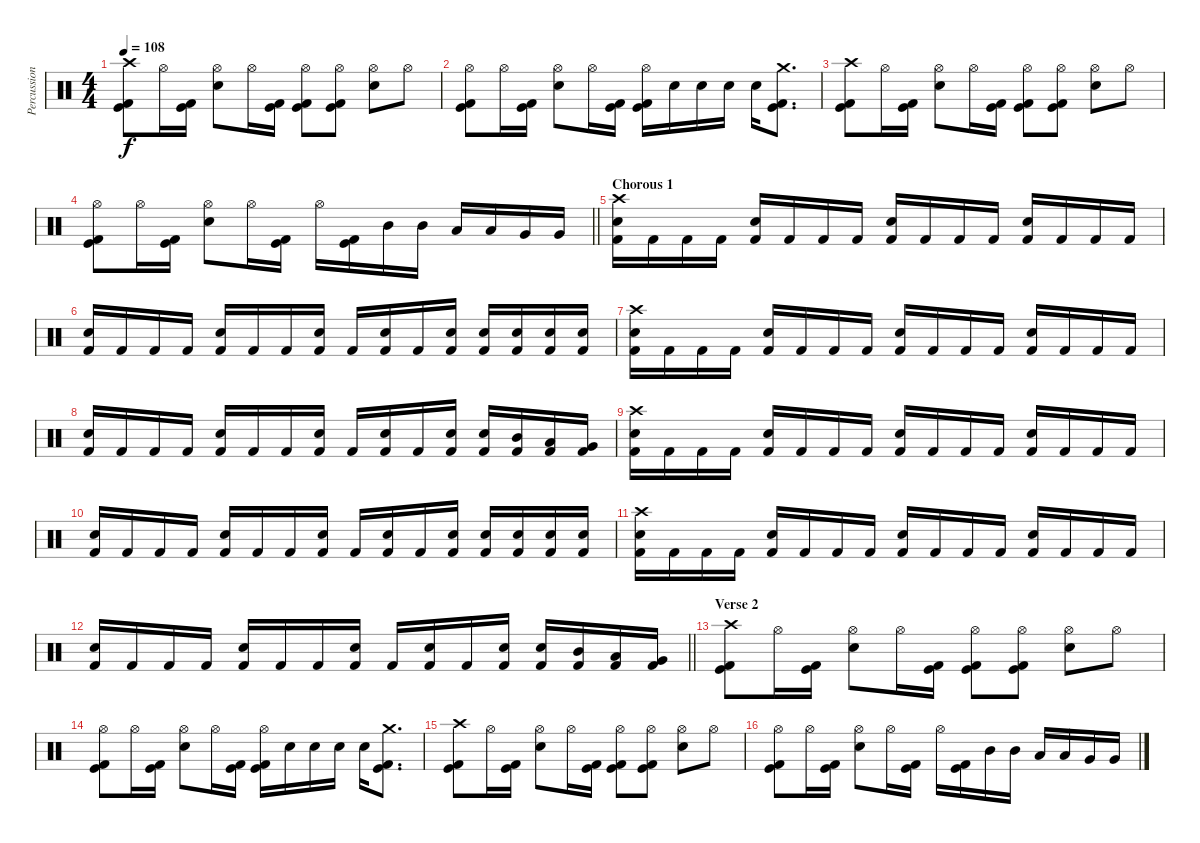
\track ("Percussion" "Percussion") {instrument percussion}
\staff {score}
\articulation defaults
\ts (4 4)
\tempo 108
\clef neutral
\ks c
("Crash high (hit)" "Kick (hit)" "Kick (hit) 2").8{dy f} "Hi-Hat (open)".16 ("Kick (hit)" "Kick (hit) 2").16 ("Hi-Hat (open)" "Electric Snare (hit)").8 "Hi-Hat (open)".16 ("Kick (hit)" "Kick (hit) 2").16 ("Hi-Hat (open)" "Kick (hit)" "Kick (hit) 2").8 ("Hi-Hat (open)" "Kick (hit)" "Kick (hit) 2").8 ("Hi-Hat (open)" "Electric Snare (hit)").8 "Hi-Hat (open)".8 |
("Hi-Hat (open)" "Kick (hit)" "Kick (hit) 2").8 "Hi-Hat (open)".16 ("Kick (hit)" "Kick (hit) 2").16 ("Hi-Hat (open)" "Electric Snare (hit)").8 "Hi-Hat (open)".16 ("Kick (hit)" "Kick (hit) 2").16 ("Hi-Hat (open)" "Kick (hit)" "Kick (hit) 2").16 "Electric Snare (hit)".16 "Electric Snare (hit)".16 "Electric Snare (hit)".16 "Electric Snare (hit)".16 ("Crash medium (hit)" "Kick (hit)" "Kick (hit) 2").8{d} |
("Crash high (hit)" "Kick (hit)" "Kick (hit) 2").8 "Hi-Hat (open)".16 ("Kick (hit)" "Kick (hit) 2").16 ("Hi-Hat (open)" "Electric Snare (hit)").8 "Hi-Hat (open)".16 ("Kick (hit)" "Kick (hit) 2").16 ("Hi-Hat (open)" "Kick (hit)" "Kick (hit) 2").8 ("Hi-Hat (open)" "Kick (hit)" "Kick (hit) 2").8 ("Hi-Hat (open)" "Electric Snare (hit)").8 "Hi-Hat (open)".8 |
\barLineRight lightlight
("Hi-Hat (open)" "Kick (hit)" "Kick (hit) 2").8 "Hi-Hat (open)".16 ("Kick (hit)" "Kick (hit) 2").16 ("Hi-Hat (open)" "Electric Snare (hit)").8 "Hi-Hat (open)".16 ("Kick (hit)" "Kick (hit) 2").16 "Hi-Hat (open)".16 ("Kick (hit)" "Kick (hit) 2").16 "Mid Tom (hit)".16 "Mid Tom (hit)".16 "Low Tom (hit)".16 "Low Tom (hit)".16 "Very Low Tom (hit)".16 "Very Low Tom (hit)".16 |
\section ("" "Chorous 1")
("Crash high (hit)" "Electric Snare (hit)" "Kick (hit) 2").16 "Kick (hit) 2".16 "Kick (hit) 2".16 "Kick (hit) 2".16 ("Electric Snare (hit)" "Kick (hit) 2").16 "Kick (hit) 2".16 "Kick (hit) 2".16 "Kick (hit) 2".16 ("Electric Snare (hit)" "Kick (hit) 2").16 "Kick (hit) 2".16 "Kick (hit) 2".16 "Kick (hit) 2".16 ("Electric Snare (hit)" "Kick (hit) 2").16 "Kick (hit) 2".16 "Kick (hit) 2".16 "Kick (hit) 2".16 |
("Electric Snare (hit)" "Kick (hit) 2").16 "Kick (hit) 2".16 "Kick (hit) 2".16 "Kick (hit) 2".16 ("Electric Snare (hit)" "Kick (hit) 2").16 "Kick (hit) 2".16 "Kick (hit) 2".16 ("Electric Snare (hit)" "Kick (hit) 2").16 "Kick (hit) 2".16 ("Electric Snare (hit)" "Kick (hit) 2").16 "Kick (hit) 2".16 ("Electric Snare (hit)" "Kick (hit) 2").16 ("Electric Snare (hit)" "Kick (hit) 2").16 ("Electric Snare (hit)" "Kick (hit) 2").16 ("Electric Snare (hit)" "Kick (hit) 2").16 ("Electric Snare (hit)" "Kick (hit) 2").16 |
("Crash high (hit)" "Electric Snare (hit)" "Kick (hit) 2").16 "Kick (hit) 2".16 "Kick (hit) 2".16 "Kick (hit) 2".16 ("Electric Snare (hit)" "Kick (hit) 2").16 "Kick (hit) 2".16 "Kick (hit) 2".16 "Kick (hit) 2".16 ("Electric Snare (hit)" "Kick (hit) 2").16 "Kick (hit) 2".16 "Kick (hit) 2".16 "Kick (hit) 2".16 ("Electric Snare (hit)" "Kick (hit) 2").16 "Kick (hit) 2".16 "Kick (hit) 2".16 "Kick (hit) 2".16 |
("Electric Snare (hit)" "Kick (hit) 2").16 "Kick (hit) 2".16 "Kick (hit) 2".16 "Kick (hit) 2".16 ("Electric Snare (hit)" "Kick (hit) 2").16 "Kick (hit) 2".16 "Kick (hit) 2".16 ("Electric Snare (hit)" "Kick (hit) 2").16 "Kick (hit) 2".16 ("Electric Snare (hit)" "Kick (hit) 2").16 "Kick (hit) 2".16 ("Electric Snare (hit)" "Kick (hit) 2").16 ("Electric Snare (hit)" "Kick (hit) 2").16 ("Kick (hit) 2" "Mid Tom (hit)").16 ("Kick (hit) 2" "Low Tom (hit)").16 ("Kick (hit) 2" "Very Low Tom (hit)").16 |
("Crash high (hit)" "Electric Snare (hit)" "Kick (hit) 2").16 "Kick (hit) 2".16 "Kick (hit) 2".16 "Kick (hit) 2".16 ("Electric Snare (hit)" "Kick (hit) 2").16 "Kick (hit) 2".16 "Kick (hit) 2".16 "Kick (hit) 2".16 ("Electric Snare (hit)" "Kick (hit) 2").16 "Kick (hit) 2".16 "Kick (hit) 2".16 "Kick (hit) 2".16 ("Electric Snare (hit)" "Kick (hit) 2").16 "Kick (hit) 2".16 "Kick (hit) 2".16 "Kick (hit) 2".16 |
("Electric Snare (hit)" "Kick (hit) 2").16 "Kick (hit) 2".16 "Kick (hit) 2".16 "Kick (hit) 2".16 ("Electric Snare (hit)" "Kick (hit) 2").16 "Kick (hit) 2".16 "Kick (hit) 2".16 ("Electric Snare (hit)" "Kick (hit) 2").16 "Kick (hit) 2".16 ("Electric Snare (hit)" "Kick (hit) 2").16 "Kick (hit) 2".16 ("Electric Snare (hit)" "Kick (hit) 2").16 ("Electric Snare (hit)" "Kick (hit) 2").16 ("Electric Snare (hit)" "Kick (hit) 2").16 ("Electric Snare (hit)" "Kick (hit) 2").16 ("Electric Snare (hit)" "Kick (hit) 2").16 |
("Crash high (hit)" "Electric Snare (hit)" "Kick (hit) 2").16 "Kick (hit) 2".16 "Kick (hit) 2".16 "Kick (hit) 2".16 ("Electric Snare (hit)" "Kick (hit) 2").16 "Kick (hit) 2".16 "Kick (hit) 2".16 "Kick (hit) 2".16 ("Electric Snare (hit)" "Kick (hit) 2").16 "Kick (hit) 2".16 "Kick (hit) 2".16 "Kick (hit) 2".16 ("Electric Snare (hit)" "Kick (hit) 2").16 "Kick (hit) 2".16 "Kick (hit) 2".16 "Kick (hit) 2".16 |
\barLineRight lightlight
("Electric Snare (hit)" "Kick (hit) 2").16 "Kick (hit) 2".16 "Kick (hit) 2".16 "Kick (hit) 2".16 ("Electric Snare (hit)" "Kick (hit) 2").16 "Kick (hit) 2".16 "Kick (hit) 2".16 ("Electric Snare (hit)" "Kick (hit) 2").16 "Kick (hit) 2".16 ("Electric Snare (hit)" "Kick (hit) 2").16 "Kick (hit) 2".16 ("Electric Snare (hit)" "Kick (hit) 2").16 ("Electric Snare (hit)" "Kick (hit) 2").16 ("Kick (hit) 2" "Mid Tom (hit)").16 ("Kick (hit) 2" "Low Tom (hit)").16 ("Kick (hit) 2" "Very Low Tom (hit)").16 |
\section ("" "Verse 2")
("Crash high (hit)" "Kick (hit)" "Kick (hit) 2").8 "Hi-Hat (open)".16 ("Kick (hit)" "Kick (hit) 2").16 ("Hi-Hat (open)" "Electric Snare (hit)").8 "Hi-Hat (open)".16 ("Kick (hit)" "Kick (hit) 2").16 ("Hi-Hat (open)" "Kick (hit)" "Kick (hit) 2").8 ("Hi-Hat (open)" "Kick (hit)" "Kick (hit) 2").8 ("Hi-Hat (open)" "Electric Snare (hit)").8 "Hi-Hat (open)".8 |
("Hi-Hat (open)" "Kick (hit)" "Kick (hit) 2").8 "Hi-Hat (open)".16 ("Kick (hit)" "Kick (hit) 2").16 ("Hi-Hat (open)" "Electric Snare (hit)").8 "Hi-Hat (open)".16 ("Kick (hit)" "Kick (hit) 2").16 ("Hi-Hat (open)" "Kick (hit)" "Kick (hit) 2").16 "Electric Snare (hit)".16 "Electric Snare (hit)".16 "Electric Snare (hit)".16 "Electric Snare (hit)".16 ("Crash medium (hit)" "Kick (hit)" "Kick (hit) 2").8{d} |
("Crash high (hit)" "Kick (hit)" "Kick (hit) 2").8 "Hi-Hat (open)".16 ("Kick (hit)" "Kick (hit) 2").16 ("Hi-Hat (open)" "Electric Snare (hit)").8 "Hi-Hat (open)".16 ("Kick (hit)" "Kick (hit) 2").16 ("Hi-Hat (open)" "Kick (hit)" "Kick (hit) 2").8 ("Hi-Hat (open)" "Kick (hit)" "Kick (hit) 2").8 ("Hi-Hat (open)" "Electric Snare (hit)").8 "Hi-Hat (open)".8 |
("Hi-Hat (open)" "Kick (hit)" "Kick (hit) 2").8 "Hi-Hat (open)".16 ("Kick (hit)" "Kick (hit) 2").16 ("Hi-Hat (open)" "Electric Snare (hit)").8 "Hi-Hat (open)".16 ("Kick (hit)" "Kick (hit) 2").16 "Hi-Hat (open)".16 ("Kick (hit)" "Kick (hit) 2").16 "Mid Tom (hit)".16 "Mid Tom (hit)".16 "Low Tom (hit)".16 "Low Tom (hit)".16 "Very Low Tom (hit)".16 "Very Low Tom (hit)".16
